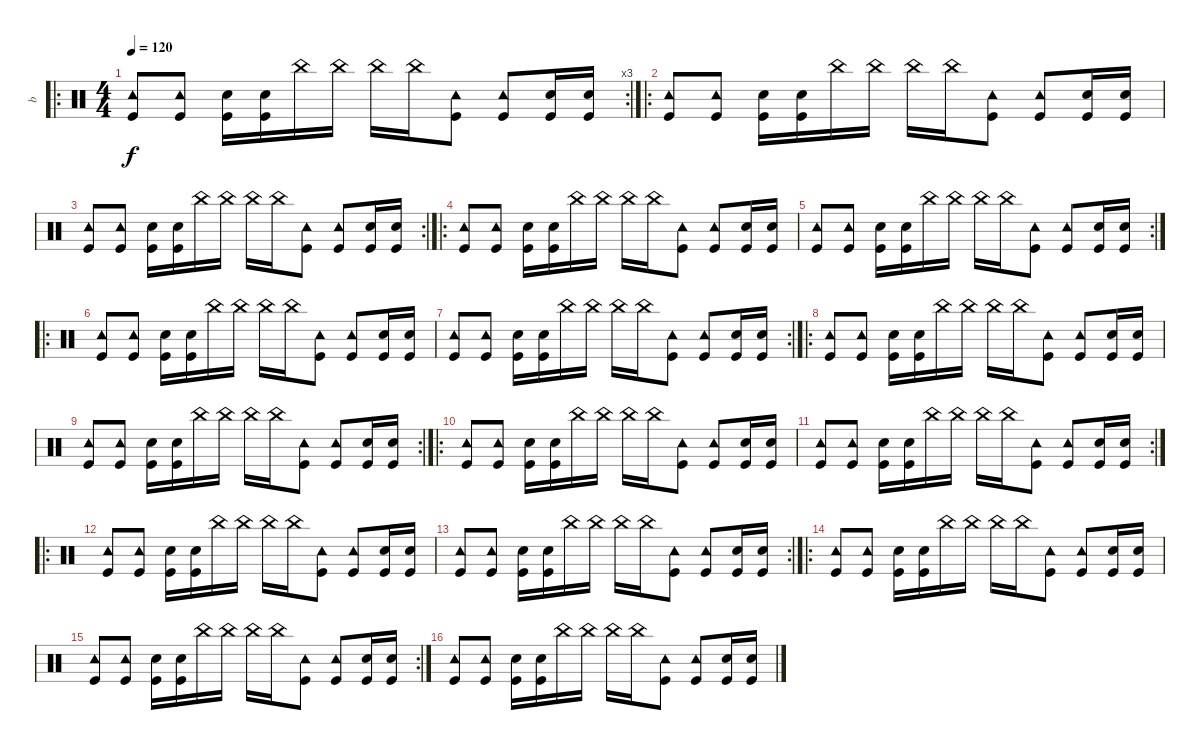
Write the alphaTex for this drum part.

\track ("b" "b") {instrument percussion}
\staff {score}
\articulation defaults
\ro
\rc 3
\ts (4 4)
\tempo 120
\clef neutral
\ks c
("Tambourine (hit)" "Kick (hit)").8{dy f} ("Tambourine (hit)" "Kick (hit)").8 ("Electric Snare (hit)" "Kick (hit)").16 ("Electric Snare (hit)" "Kick (hit)").16 "China (hit)".16 "China (hit)".16 "China (hit)".16 "China (hit)".16 ("Tambourine (hit)" "Kick (hit)").8 ("Tambourine (hit)" "Kick (hit)").8 ("Electric Snare (hit)" "Kick (hit)").16 ("Electric Snare (hit)" "Kick (hit)").16 |
\ro
("Tambourine (hit)" "Kick (hit)").8 ("Tambourine (hit)" "Kick (hit)").8 ("Electric Snare (hit)" "Kick (hit)").16 ("Electric Snare (hit)" "Kick (hit)").16 "China (hit)".16 "China (hit)".16 "China (hit)".16 "China (hit)".16 ("Tambourine (hit)" "Kick (hit)").8 ("Tambourine (hit)" "Kick (hit)").8 ("Electric Snare (hit)" "Kick (hit)").16 ("Electric Snare (hit)" "Kick (hit)").16 |
\rc 2
("Tambourine (hit)" "Kick (hit)").8 ("Tambourine (hit)" "Kick (hit)").8 ("Electric Snare (hit)" "Kick (hit)").16 ("Electric Snare (hit)" "Kick (hit)").16 "China (hit)".16 "China (hit)".16 "China (hit)".16 "China (hit)".16 ("Tambourine (hit)" "Kick (hit)").8 ("Tambourine (hit)" "Kick (hit)").8 ("Electric Snare (hit)" "Kick (hit)").16 ("Electric Snare (hit)" "Kick (hit)").16 |
\ro
("Tambourine (hit)" "Kick (hit)").8 ("Tambourine (hit)" "Kick (hit)").8 ("Electric Snare (hit)" "Kick (hit)").16 ("Electric Snare (hit)" "Kick (hit)").16 "China (hit)".16 "China (hit)".16 "China (hit)".16 "China (hit)".16 ("Tambourine (hit)" "Kick (hit)").8 ("Tambourine (hit)" "Kick (hit)").8 ("Electric Snare (hit)" "Kick (hit)").16 ("Electric Snare (hit)" "Kick (hit)").16 |
\rc 2
("Tambourine (hit)" "Kick (hit)").8 ("Tambourine (hit)" "Kick (hit)").8 ("Electric Snare (hit)" "Kick (hit)").16 ("Electric Snare (hit)" "Kick (hit)").16 "China (hit)".16 "China (hit)".16 "China (hit)".16 "China (hit)".16 ("Tambourine (hit)" "Kick (hit)").8 ("Tambourine (hit)" "Kick (hit)").8 ("Electric Snare (hit)" "Kick (hit)").16 ("Electric Snare (hit)" "Kick (hit)").16 |
\ro
("Tambourine (hit)" "Kick (hit)").8 ("Tambourine (hit)" "Kick (hit)").8 ("Electric Snare (hit)" "Kick (hit)").16 ("Electric Snare (hit)" "Kick (hit)").16 "China (hit)".16 "China (hit)".16 "China (hit)".16 "China (hit)".16 ("Tambourine (hit)" "Kick (hit)").8 ("Tambourine (hit)" "Kick (hit)").8 ("Electric Snare (hit)" "Kick (hit)").16 ("Electric Snare (hit)" "Kick (hit)").16 |
\rc 2
("Tambourine (hit)" "Kick (hit)").8 ("Tambourine (hit)" "Kick (hit)").8 ("Electric Snare (hit)" "Kick (hit)").16 ("Electric Snare (hit)" "Kick (hit)").16 "China (hit)".16 "China (hit)".16 "China (hit)".16 "China (hit)".16 ("Tambourine (hit)" "Kick (hit)").8 ("Tambourine (hit)" "Kick (hit)").8 ("Electric Snare (hit)" "Kick (hit)").16 ("Electric Snare (hit)" "Kick (hit)").16 |
\ro
("Tambourine (hit)" "Kick (hit)").8 ("Tambourine (hit)" "Kick (hit)").8 ("Electric Snare (hit)" "Kick (hit)").16 ("Electric Snare (hit)" "Kick (hit)").16 "China (hit)".16 "China (hit)".16 "China (hit)".16 "China (hit)".16 ("Tambourine (hit)" "Kick (hit)").8 ("Tambourine (hit)" "Kick (hit)").8 ("Electric Snare (hit)" "Kick (hit)").16 ("Electric Snare (hit)" "Kick (hit)").16 |
\rc 2
("Tambourine (hit)" "Kick (hit)").8 ("Tambourine (hit)" "Kick (hit)").8 ("Electric Snare (hit)" "Kick (hit)").16 ("Electric Snare (hit)" "Kick (hit)").16 "China (hit)".16 "China (hit)".16 "China (hit)".16 "China (hit)".16 ("Tambourine (hit)" "Kick (hit)").8 ("Tambourine (hit)" "Kick (hit)").8 ("Electric Snare (hit)" "Kick (hit)").16 ("Electric Snare (hit)" "Kick (hit)").16 |
\ro
("Tambourine (hit)" "Kick (hit)").8 ("Tambourine (hit)" "Kick (hit)").8 ("Electric Snare (hit)" "Kick (hit)").16 ("Electric Snare (hit)" "Kick (hit)").16 "China (hit)".16 "China (hit)".16 "China (hit)".16 "China (hit)".16 ("Tambourine (hit)" "Kick (hit)").8 ("Tambourine (hit)" "Kick (hit)").8 ("Electric Snare (hit)" "Kick (hit)").16 ("Electric Snare (hit)" "Kick (hit)").16 |
\rc 2
("Tambourine (hit)" "Kick (hit)").8 ("Tambourine (hit)" "Kick (hit)").8 ("Electric Snare (hit)" "Kick (hit)").16 ("Electric Snare (hit)" "Kick (hit)").16 "China (hit)".16 "China (hit)".16 "China (hit)".16 "China (hit)".16 ("Tambourine (hit)" "Kick (hit)").8 ("Tambourine (hit)" "Kick (hit)").8 ("Electric Snare (hit)" "Kick (hit)").16 ("Electric Snare (hit)" "Kick (hit)").16 |
\ro
("Tambourine (hit)" "Kick (hit)").8 ("Tambourine (hit)" "Kick (hit)").8 ("Electric Snare (hit)" "Kick (hit)").16 ("Electric Snare (hit)" "Kick (hit)").16 "China (hit)".16 "China (hit)".16 "China (hit)".16 "China (hit)".16 ("Tambourine (hit)" "Kick (hit)").8 ("Tambourine (hit)" "Kick (hit)").8 ("Electric Snare (hit)" "Kick (hit)").16 ("Electric Snare (hit)" "Kick (hit)").16 |
\rc 2
("Tambourine (hit)" "Kick (hit)").8 ("Tambourine (hit)" "Kick (hit)").8 ("Electric Snare (hit)" "Kick (hit)").16 ("Electric Snare (hit)" "Kick (hit)").16 "China (hit)".16 "China (hit)".16 "China (hit)".16 "China (hit)".16 ("Tambourine (hit)" "Kick (hit)").8 ("Tambourine (hit)" "Kick (hit)").8 ("Electric Snare (hit)" "Kick (hit)").16 ("Electric Snare (hit)" "Kick (hit)").16 |
\ro
("Tambourine (hit)" "Kick (hit)").8 ("Tambourine (hit)" "Kick (hit)").8 ("Electric Snare (hit)" "Kick (hit)").16 ("Electric Snare (hit)" "Kick (hit)").16 "China (hit)".16 "China (hit)".16 "China (hit)".16 "China (hit)".16 ("Tambourine (hit)" "Kick (hit)").8 ("Tambourine (hit)" "Kick (hit)").8 ("Electric Snare (hit)" "Kick (hit)").16 ("Electric Snare (hit)" "Kick (hit)").16 |
\rc 2
("Tambourine (hit)" "Kick (hit)").8 ("Tambourine (hit)" "Kick (hit)").8 ("Electric Snare (hit)" "Kick (hit)").16 ("Electric Snare (hit)" "Kick (hit)").16 "China (hit)".16 "China (hit)".16 "China (hit)".16 "China (hit)".16 ("Tambourine (hit)" "Kick (hit)").8 ("Tambourine (hit)" "Kick (hit)").8 ("Electric Snare (hit)" "Kick (hit)").16 ("Electric Snare (hit)" "Kick (hit)").16 |
("Tambourine (hit)" "Kick (hit)").8 ("Tambourine (hit)" "Kick (hit)").8 ("Electric Snare (hit)" "Kick (hit)").16 ("Electric Snare (hit)" "Kick (hit)").16 "China (hit)".16 "China (hit)".16 "China (hit)".16 "China (hit)".16 ("Tambourine (hit)" "Kick (hit)").8 ("Tambourine (hit)" "Kick (hit)").8 ("Electric Snare (hit)" "Kick (hit)").16 ("Electric Snare (hit)" "Kick (hit)").16
